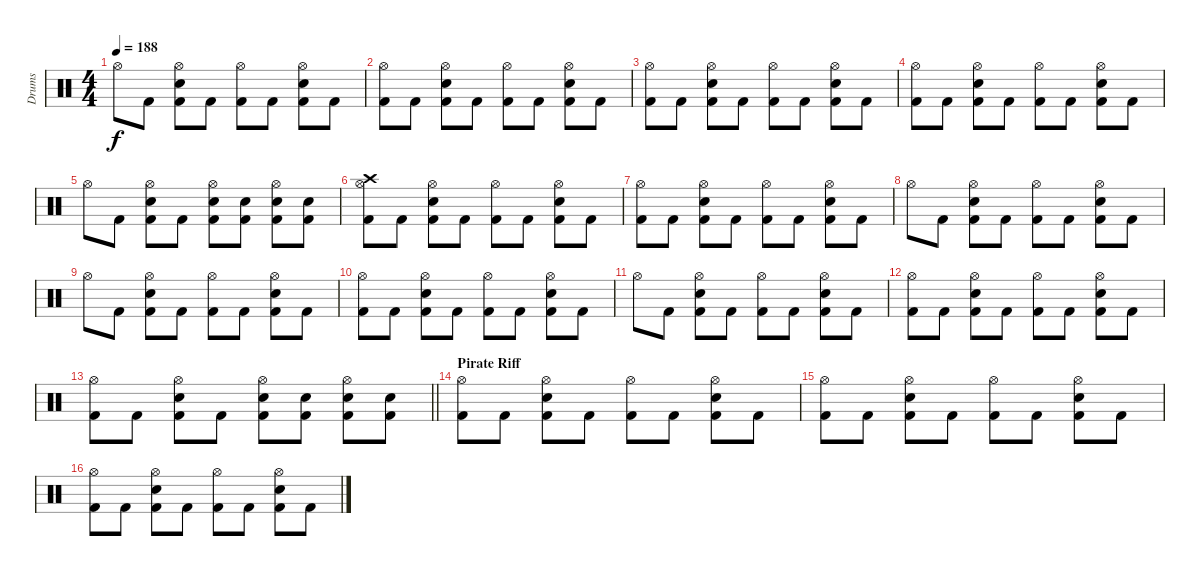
\track ("Drums" "Drums") {instrument percussion}
\staff {score}
\articulation defaults
\ts (4 4)
\tempo 188
\clef neutral
\ks c "Hi-Hat (open)".8{dy f} "Kick (hit) 2".8
("Hi-Hat (open)" "Snare (hit) 2" "Kick (hit) 2").8 "Kick (hit) 2".8 ("Hi-Hat (open)" "Kick (hit) 2").8 "Kick (hit) 2".8 ("Hi-Hat (open)" "Snare (hit) 2" "Kick (hit) 2").8 "Kick (hit) 2".8 |
("Hi-Hat (open)" "Kick (hit) 2").8 "Kick (hit) 2".8 ("Hi-Hat (open)" "Snare (hit) 2" "Kick (hit) 2").8 "Kick (hit) 2".8 ("Hi-Hat (open)" "Kick (hit) 2").8 "Kick (hit) 2".8 ("Hi-Hat (open)" "Snare (hit) 2" "Kick (hit) 2").8 "Kick (hit) 2".8 |
("Hi-Hat (open)" "Kick (hit) 2").8 "Kick (hit) 2".8 ("Hi-Hat (open)" "Snare (hit) 2" "Kick (hit) 2").8 "Kick (hit) 2".8 ("Hi-Hat (open)" "Kick (hit) 2").8 "Kick (hit) 2".8 ("Hi-Hat (open)" "Snare (hit) 2" "Kick (hit) 2").8 "Kick (hit) 2".8 |
("Hi-Hat (open)" "Kick (hit) 2").8 "Kick (hit) 2".8 ("Hi-Hat (open)" "Snare (hit) 2" "Kick (hit) 2").8 "Kick (hit) 2".8 ("Hi-Hat (open)" "Kick (hit) 2").8 "Kick (hit) 2".8 ("Hi-Hat (open)" "Snare (hit) 2" "Kick (hit) 2").8 "Kick (hit) 2".8 |
"Hi-Hat (open)".8 "Kick (hit) 2".8 ("Hi-Hat (open)" "Snare (hit) 2" "Kick (hit) 2").8 "Kick (hit) 2".8 ("Hi-Hat (open)" "Snare (hit) 2" "Kick (hit) 2").8 ("Snare (hit) 2" "Kick (hit) 2").8 ("Hi-Hat (open)" "Snare (hit) 2" "Kick (hit) 2").8 ("Snare (hit) 2" "Kick (hit) 2").8 |
("Crash high (hit)" "Hi-Hat (open)" "Kick (hit) 2").8 "Kick (hit) 2".8 ("Hi-Hat (open)" "Snare (hit) 2" "Kick (hit) 2").8 "Kick (hit) 2".8 ("Hi-Hat (open)" "Kick (hit) 2").8 "Kick (hit) 2".8 ("Hi-Hat (open)" "Snare (hit) 2" "Kick (hit) 2").8 "Kick (hit) 2".8 |
("Hi-Hat (open)" "Kick (hit) 2").8 "Kick (hit) 2".8 ("Hi-Hat (open)" "Snare (hit) 2" "Kick (hit) 2").8 "Kick (hit) 2".8 ("Hi-Hat (open)" "Kick (hit) 2").8 "Kick (hit) 2".8 ("Hi-Hat (open)" "Snare (hit) 2" "Kick (hit) 2").8 "Kick (hit) 2".8 |
"Hi-Hat (open)".8 "Kick (hit) 2".8 ("Hi-Hat (open)" "Snare (hit) 2" "Kick (hit) 2").8 "Kick (hit) 2".8 ("Hi-Hat (open)" "Kick (hit) 2").8 "Kick (hit) 2".8 ("Hi-Hat (open)" "Snare (hit) 2" "Kick (hit) 2").8 "Kick (hit) 2".8 |
"Hi-Hat (open)".8 "Kick (hit) 2".8 ("Hi-Hat (open)" "Snare (hit) 2" "Kick (hit) 2").8 "Kick (hit) 2".8 ("Hi-Hat (open)" "Kick (hit) 2").8 "Kick (hit) 2".8 ("Hi-Hat (open)" "Snare (hit) 2" "Kick (hit) 2").8 "Kick (hit) 2".8 |
("Hi-Hat (open)" "Kick (hit) 2").8 "Kick (hit) 2".8 ("Hi-Hat (open)" "Snare (hit) 2" "Kick (hit) 2").8 "Kick (hit) 2".8 ("Hi-Hat (open)" "Kick (hit) 2").8 "Kick (hit) 2".8 ("Hi-Hat (open)" "Snare (hit) 2" "Kick (hit) 2").8 "Kick (hit) 2".8 |
"Hi-Hat (open)".8 "Kick (hit) 2".8 ("Hi-Hat (open)" "Snare (hit) 2" "Kick (hit) 2").8 "Kick (hit) 2".8 ("Hi-Hat (open)" "Kick (hit) 2").8 "Kick (hit) 2".8 ("Hi-Hat (open)" "Snare (hit) 2" "Kick (hit) 2").8 "Kick (hit) 2".8 |
("Hi-Hat (open)" "Kick (hit) 2").8 "Kick (hit) 2".8 ("Hi-Hat (open)" "Snare (hit) 2" "Kick (hit) 2").8 "Kick (hit) 2".8 ("Hi-Hat (open)" "Kick (hit) 2").8 "Kick (hit) 2".8 ("Hi-Hat (open)" "Snare (hit) 2" "Kick (hit) 2").8 "Kick (hit) 2".8 |
\barLineRight lightlight
("Hi-Hat (open)" "Kick (hit) 2").8 "Kick (hit) 2".8 ("Hi-Hat (open)" "Snare (hit) 2" "Kick (hit) 2").8 "Kick (hit) 2".8 ("Hi-Hat (open)" "Snare (hit) 2" "Kick (hit) 2").8 ("Snare (hit) 2" "Kick (hit) 2").8 ("Hi-Hat (open)" "Snare (hit) 2" "Kick (hit) 2").8 ("Snare (hit) 2" "Kick (hit) 2").8 |
\section ("" "Pirate Riff")
("Hi-Hat (open)" "Kick (hit) 2").8 "Kick (hit) 2".8 ("Hi-Hat (open)" "Snare (hit) 2" "Kick (hit) 2").8 "Kick (hit) 2".8 ("Hi-Hat (open)" "Kick (hit) 2").8 "Kick (hit) 2".8 ("Hi-Hat (open)" "Snare (hit) 2" "Kick (hit) 2").8 "Kick (hit) 2".8 |
("Hi-Hat (open)" "Kick (hit) 2").8 "Kick (hit) 2".8 ("Hi-Hat (open)" "Snare (hit) 2" "Kick (hit) 2").8 "Kick (hit) 2".8 ("Hi-Hat (open)" "Kick (hit) 2").8 "Kick (hit) 2".8 ("Hi-Hat (open)" "Snare (hit) 2" "Kick (hit) 2").8 "Kick (hit) 2".8 |
("Hi-Hat (open)" "Kick (hit) 2").8 "Kick (hit) 2".8 ("Hi-Hat (open)" "Snare (hit) 2" "Kick (hit) 2").8 "Kick (hit) 2".8 ("Hi-Hat (open)" "Kick (hit) 2").8 "Kick (hit) 2".8 ("Hi-Hat (open)" "Snare (hit) 2" "Kick (hit) 2").8 "Kick (hit) 2".8
